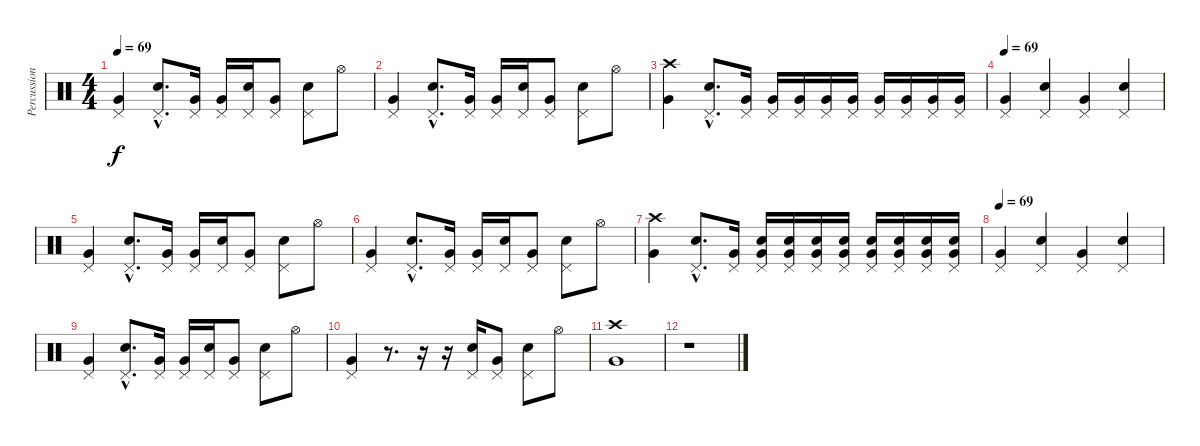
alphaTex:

\track ("Percussion" "Percussion") {instrument percussion}
\staff {score}
\articulation defaults
\ts (4 4)
\tempo 69
\clef neutral
\ks c
("Pedal Hi-Hat (hit)" "Very Low Tom (hit)").4{dy f} ("Pedal Hi-Hat (hit)"{hac} "Electric Snare (hit)"{hac}).8{d} ("Pedal Hi-Hat (hit)" "Very Low Tom (hit)").16 ("Pedal Hi-Hat (hit)" "Very Low Tom (hit)").16 ("Pedal Hi-Hat (hit)" "Electric Snare (hit)").16 ("Pedal Hi-Hat (hit)" "Very Low Tom (hit)").8 ("Pedal Hi-Hat (hit)" "Electric Snare (hit)").8 "Hi-Hat (open)".8 |
("Pedal Hi-Hat (hit)" "Very Low Tom (hit)").4 ("Pedal Hi-Hat (hit)"{hac} "Electric Snare (hit)"{hac}).8{d} ("Pedal Hi-Hat (hit)" "Very Low Tom (hit)").16 ("Pedal Hi-Hat (hit)" "Very Low Tom (hit)").16 ("Pedal Hi-Hat (hit)" "Electric Snare (hit)").16 ("Pedal Hi-Hat (hit)" "Very Low Tom (hit)").8 ("Pedal Hi-Hat (hit)" "Electric Snare (hit)").8 "Hi-Hat (open)".8 |
("Crash high (hit)" "Very Low Tom (hit)").4 ("Pedal Hi-Hat (hit)"{hac} "Electric Snare (hit)"{hac}).8{d} ("Pedal Hi-Hat (hit)" "Very Low Tom (hit)").16 ("Pedal Hi-Hat (hit)" "Very Low Tom (hit)").16 ("Pedal Hi-Hat (hit)" "Very Low Tom (hit)").16 ("Pedal Hi-Hat (hit)" "Very Low Tom (hit)").16 ("Pedal Hi-Hat (hit)" "Very Low Tom (hit)").16 ("Pedal Hi-Hat (hit)" "Very Low Tom (hit)").16 ("Pedal Hi-Hat (hit)" "Very Low Tom (hit)").16 ("Pedal Hi-Hat (hit)" "Very Low Tom (hit)").16 ("Pedal Hi-Hat (hit)" "Very Low Tom (hit)").16 |
\tempo 69
("Pedal Hi-Hat (hit)" "Very Low Tom (hit)").4 ("Pedal Hi-Hat (hit)" "Electric Snare (hit)").4 ("Pedal Hi-Hat (hit)" "Very Low Tom (hit)").4 ("Pedal Hi-Hat (hit)" "Electric Snare (hit)").4 |
("Pedal Hi-Hat (hit)" "Very Low Tom (hit)").4 ("Pedal Hi-Hat (hit)"{hac} "Electric Snare (hit)"{hac}).8{d} ("Pedal Hi-Hat (hit)" "Very Low Tom (hit)").16 ("Pedal Hi-Hat (hit)" "Very Low Tom (hit)").16 ("Pedal Hi-Hat (hit)" "Electric Snare (hit)").16 ("Pedal Hi-Hat (hit)" "Very Low Tom (hit)").8 ("Pedal Hi-Hat (hit)" "Electric Snare (hit)").8 "Hi-Hat (open)".8 |
("Pedal Hi-Hat (hit)" "Very Low Tom (hit)").4 ("Pedal Hi-Hat (hit)"{hac} "Electric Snare (hit)"{hac}).8{d} ("Pedal Hi-Hat (hit)" "Very Low Tom (hit)").16 ("Pedal Hi-Hat (hit)" "Very Low Tom (hit)").16 ("Pedal Hi-Hat (hit)" "Electric Snare (hit)").16 ("Pedal Hi-Hat (hit)" "Very Low Tom (hit)").8 ("Pedal Hi-Hat (hit)" "Electric Snare (hit)").8 "Hi-Hat (open)".8 |
("Crash high (hit)" "Very Low Tom (hit)").4 ("Pedal Hi-Hat (hit)"{hac} "Electric Snare (hit)"{hac}).8{d} ("Pedal Hi-Hat (hit)" "Very Low Tom (hit)").16 ("Pedal Hi-Hat (hit)" "Electric Snare (hit)" "Very Low Tom (hit)").16 ("Pedal Hi-Hat (hit)" "Electric Snare (hit)" "Very Low Tom (hit)").16 ("Pedal Hi-Hat (hit)" "Electric Snare (hit)" "Very Low Tom (hit)").16 ("Pedal Hi-Hat (hit)" "Electric Snare (hit)" "Very Low Tom (hit)").16 ("Pedal Hi-Hat (hit)" "Electric Snare (hit)" "Very Low Tom (hit)").16 ("Pedal Hi-Hat (hit)" "Electric Snare (hit)" "Very Low Tom (hit)").16 ("Pedal Hi-Hat (hit)" "Electric Snare (hit)" "Very Low Tom (hit)").16 ("Pedal Hi-Hat (hit)" "Electric Snare (hit)" "Very Low Tom (hit)").16 |
\tempo 69
("Pedal Hi-Hat (hit)" "Very Low Tom (hit)").4 ("Pedal Hi-Hat (hit)" "Electric Snare (hit)").4 ("Pedal Hi-Hat (hit)" "Very Low Tom (hit)").4 ("Pedal Hi-Hat (hit)" "Electric Snare (hit)").4 |
("Pedal Hi-Hat (hit)" "Very Low Tom (hit)").4 ("Pedal Hi-Hat (hit)"{hac} "Electric Snare (hit)"{hac}).8{d} ("Pedal Hi-Hat (hit)" "Very Low Tom (hit)").16 ("Pedal Hi-Hat (hit)" "Very Low Tom (hit)").16 ("Pedal Hi-Hat (hit)" "Electric Snare (hit)").16 ("Pedal Hi-Hat (hit)" "Very Low Tom (hit)").8 ("Pedal Hi-Hat (hit)" "Electric Snare (hit)").8 "Hi-Hat (open)".8 |
("Pedal Hi-Hat (hit)" "Very Low Tom (hit)").4 r.8{d} r.16 r.16 ("Pedal Hi-Hat (hit)" "Electric Snare (hit)").16 ("Pedal Hi-Hat (hit)" "Very Low Tom (hit)").8 ("Pedal Hi-Hat (hit)" "Electric Snare (hit)").8 "Hi-Hat (open)".8 |
("Crash high (hit)" "Very Low Tom (hit)").1 |
r.1
